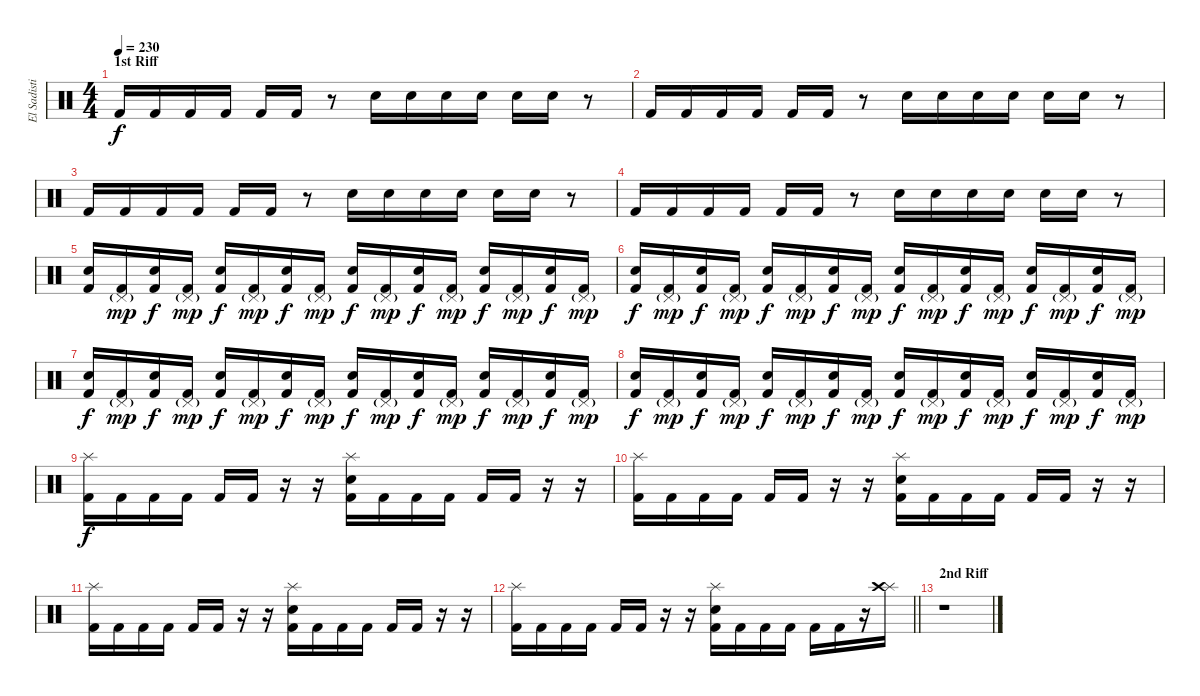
\track ("El Sadistico" "El Sadisti") {instrument percussion}
\staff {score}
\articulation defaults
\ts (4 4)
\section ("" "1st Riff")
\tempo 230
\clef neutral
\ks c "Kick (hit) 2".16{dy f} "Kick (hit) 2".16 "Kick (hit) 2".16 "Kick (hit) 2".16 "Kick (hit) 2".16 "Kick (hit) 2".16
r.8 "Electric Snare (hit)".16 "Electric Snare (hit)".16 "Electric Snare (hit)".16 "Electric Snare (hit)".16 "Electric Snare (hit)".16 "Electric Snare (hit)".16 r.8 |
"Kick (hit) 2".16 "Kick (hit) 2".16 "Kick (hit) 2".16 "Kick (hit) 2".16 "Kick (hit) 2".16 "Kick (hit) 2".16 r.8 "Electric Snare (hit)".16 "Electric Snare (hit)".16 "Electric Snare (hit)".16 "Electric Snare (hit)".16 "Electric Snare (hit)".16 "Electric Snare (hit)".16 r.8 |
"Kick (hit) 2".16 "Kick (hit) 2".16 "Kick (hit) 2".16 "Kick (hit) 2".16 "Kick (hit) 2".16 "Kick (hit) 2".16 r.8 "Electric Snare (hit)".16 "Electric Snare (hit)".16 "Electric Snare (hit)".16 "Electric Snare (hit)".16 "Electric Snare (hit)".16 "Electric Snare (hit)".16 r.8 |
"Kick (hit) 2".16 "Kick (hit) 2".16 "Kick (hit) 2".16 "Kick (hit) 2".16 "Kick (hit) 2".16 "Kick (hit) 2".16 r.8 "Electric Snare (hit)".16 "Electric Snare (hit)".16 "Electric Snare (hit)".16 "Electric Snare (hit)".16 "Electric Snare (hit)".16 "Electric Snare (hit)".16 r.8 |
("Electric Snare (hit)" "Kick (hit) 2").16 ("Pedal Hi-Hat (hit)"{g} "Kick (hit) 2").16{dy mp} ("Electric Snare (hit)" "Kick (hit) 2").16{dy f} ("Pedal Hi-Hat (hit)"{g} "Kick (hit) 2").16{dy mp} ("Electric Snare (hit)" "Kick (hit) 2").16{dy f} ("Pedal Hi-Hat (hit)"{g} "Kick (hit) 2").16{dy mp} ("Electric Snare (hit)" "Kick (hit) 2").16{dy f} ("Pedal Hi-Hat (hit)"{g} "Kick (hit) 2").16{dy mp} ("Electric Snare (hit)" "Kick (hit) 2").16{dy f} ("Pedal Hi-Hat (hit)"{g} "Kick (hit) 2").16{dy mp} ("Electric Snare (hit)" "Kick (hit) 2").16{dy f} ("Pedal Hi-Hat (hit)"{g} "Kick (hit) 2").16{dy mp} ("Electric Snare (hit)" "Kick (hit) 2").16{dy f} ("Pedal Hi-Hat (hit)"{g} "Kick (hit) 2").16{dy mp} ("Electric Snare (hit)" "Kick (hit) 2").16{dy f} ("Pedal Hi-Hat (hit)"{g} "Kick (hit) 2").16{dy mp} |
("Electric Snare (hit)" "Kick (hit) 2").16{dy f} ("Pedal Hi-Hat (hit)"{g} "Kick (hit) 2").16{dy mp} ("Electric Snare (hit)" "Kick (hit) 2").16{dy f} ("Pedal Hi-Hat (hit)"{g} "Kick (hit) 2").16{dy mp} ("Electric Snare (hit)" "Kick (hit) 2").16{dy f} ("Pedal Hi-Hat (hit)"{g} "Kick (hit) 2").16{dy mp} ("Electric Snare (hit)" "Kick (hit) 2").16{dy f} ("Pedal Hi-Hat (hit)"{g} "Kick (hit) 2").16{dy mp} ("Electric Snare (hit)" "Kick (hit) 2").16{dy f} ("Pedal Hi-Hat (hit)"{g} "Kick (hit) 2").16{dy mp} ("Electric Snare (hit)" "Kick (hit) 2").16{dy f} ("Pedal Hi-Hat (hit)"{g} "Kick (hit) 2").16{dy mp} ("Electric Snare (hit)" "Kick (hit) 2").16{dy f} ("Pedal Hi-Hat (hit)"{g} "Kick (hit) 2").16{dy mp} ("Electric Snare (hit)" "Kick (hit) 2").16{dy f} ("Pedal Hi-Hat (hit)"{g} "Kick (hit) 2").16{dy mp} |
("Electric Snare (hit)" "Kick (hit) 2").16{dy f} ("Pedal Hi-Hat (hit)"{g} "Kick (hit) 2").16{dy mp} ("Electric Snare (hit)" "Kick (hit) 2").16{dy f} ("Pedal Hi-Hat (hit)"{g} "Kick (hit) 2").16{dy mp} ("Electric Snare (hit)" "Kick (hit) 2").16{dy f} ("Pedal Hi-Hat (hit)"{g} "Kick (hit) 2").16{dy mp} ("Electric Snare (hit)" "Kick (hit) 2").16{dy f} ("Pedal Hi-Hat (hit)"{g} "Kick (hit) 2").16{dy mp} ("Electric Snare (hit)" "Kick (hit) 2").16{dy f} ("Pedal Hi-Hat (hit)"{g} "Kick (hit) 2").16{dy mp} ("Electric Snare (hit)" "Kick (hit) 2").16{dy f} ("Pedal Hi-Hat (hit)"{g} "Kick (hit) 2").16{dy mp} ("Electric Snare (hit)" "Kick (hit) 2").16{dy f} ("Pedal Hi-Hat (hit)"{g} "Kick (hit) 2").16{dy mp} ("Electric Snare (hit)" "Kick (hit) 2").16{dy f} ("Pedal Hi-Hat (hit)"{g} "Kick (hit) 2").16{dy mp} |
("Electric Snare (hit)" "Kick (hit) 2").16{dy f} ("Pedal Hi-Hat (hit)"{g} "Kick (hit) 2").16{dy mp} ("Electric Snare (hit)" "Kick (hit) 2").16{dy f} ("Pedal Hi-Hat (hit)"{g} "Kick (hit) 2").16{dy mp} ("Electric Snare (hit)" "Kick (hit) 2").16{dy f} ("Pedal Hi-Hat (hit)"{g} "Kick (hit) 2").16{dy mp} ("Electric Snare (hit)" "Kick (hit) 2").16{dy f} ("Pedal Hi-Hat (hit)"{g} "Kick (hit) 2").16{dy mp} ("Electric Snare (hit)" "Kick (hit) 2").16{dy f} ("Pedal Hi-Hat (hit)"{g} "Kick (hit) 2").16{dy mp} ("Electric Snare (hit)" "Kick (hit) 2").16{dy f} ("Pedal Hi-Hat (hit)"{g} "Kick (hit) 2").16{dy mp} ("Electric Snare (hit)" "Kick (hit) 2").16{dy f} ("Pedal Hi-Hat (hit)"{g} "Kick (hit) 2").16{dy mp} ("Electric Snare (hit)" "Kick (hit) 2").16{dy f} ("Pedal Hi-Hat (hit)"{g} "Kick (hit) 2").16{dy mp} |
("Splash (hit)" "Kick (hit) 2").16{dy f} "Kick (hit) 2".16 "Kick (hit) 2".16 "Kick (hit) 2".16 "Kick (hit) 2".16 "Kick (hit) 2".16 r.16 r.16 ("Splash (hit)" "Electric Snare (hit)" "Kick (hit) 2").16 "Kick (hit) 2".16 "Kick (hit) 2".16 "Kick (hit) 2".16 "Kick (hit) 2".16 "Kick (hit) 2".16 r.16 r.16 |
("Splash (hit)" "Kick (hit) 2").16 "Kick (hit) 2".16 "Kick (hit) 2".16 "Kick (hit) 2".16 "Kick (hit) 2".16 "Kick (hit) 2".16 r.16 r.16 ("Splash (hit)" "Electric Snare (hit)" "Kick (hit) 2").16 "Kick (hit) 2".16 "Kick (hit) 2".16 "Kick (hit) 2".16 "Kick (hit) 2".16 "Kick (hit) 2".16 r.16 r.16 |
("Splash (hit)" "Kick (hit) 2").16 "Kick (hit) 2".16 "Kick (hit) 2".16 "Kick (hit) 2".16 "Kick (hit) 2".16 "Kick (hit) 2".16 r.16 r.16 ("Splash (hit)" "Electric Snare (hit)" "Kick (hit) 2").16 "Kick (hit) 2".16 "Kick (hit) 2".16 "Kick (hit) 2".16 "Kick (hit) 2".16 "Kick (hit) 2".16 r.16 r.16 |
\barLineRight lightlight
("Splash (hit)" "Kick (hit) 2").16 "Kick (hit) 2".16 "Kick (hit) 2".16 "Kick (hit) 2".16 "Kick (hit) 2".16 "Kick (hit) 2".16 r.16 r.16 ("Splash (hit)" "Electric Snare (hit)" "Kick (hit) 2").16 "Kick (hit) 2".16 "Kick (hit) 2".16 "Kick (hit) 2".16 "Kick (hit) 2".16 "Kick (hit) 2".16 r.16 ("Splash (hit)" "Crash high (hit)").16 |
\section ("" "2nd Riff")
r.1
